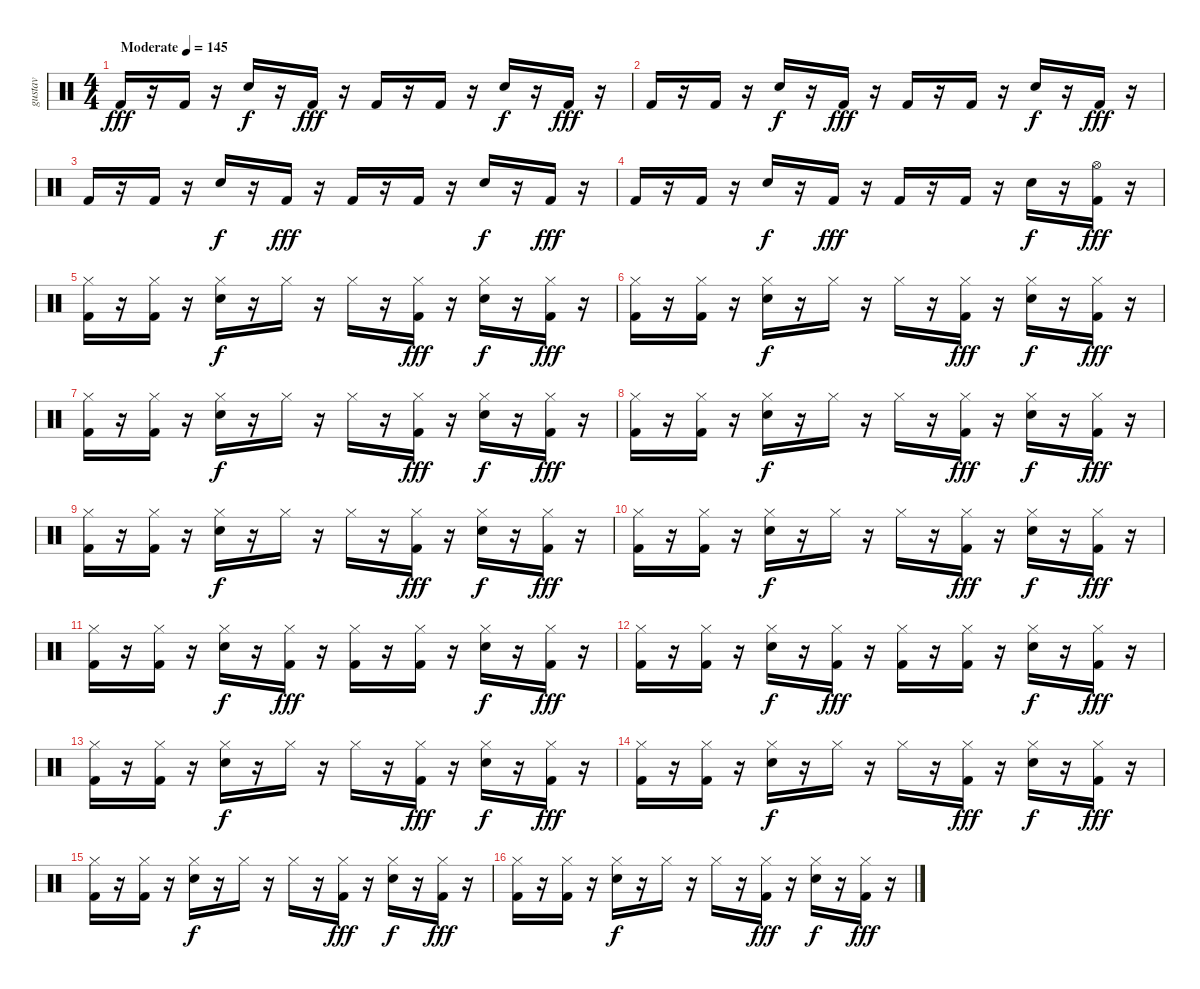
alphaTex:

\track ("gustav" "gustav") {instrument percussion}
\staff {score}
\articulation defaults
\ts (4 4)
\tempo (145 "Moderate")
\clef neutral
\ks c "Kick (hit) 2".16{dy fff}
r.16 "Kick (hit) 2".16 r.16 "Electric Snare (hit)".16{dy f} r.16 "Kick (hit) 2".16{dy fff} r.16 "Kick (hit) 2".16 r.16 "Kick (hit) 2".16 r.16 "Electric Snare (hit)".16{dy f} r.16 "Kick (hit) 2".16{dy fff} r.16 |
"Kick (hit) 2".16 r.16 "Kick (hit) 2".16 r.16 "Electric Snare (hit)".16{dy f} r.16 "Kick (hit) 2".16{dy fff} r.16 "Kick (hit) 2".16 r.16 "Kick (hit) 2".16 r.16 "Electric Snare (hit)".16{dy f} r.16 "Kick (hit) 2".16{dy fff} r.16 |
"Kick (hit) 2".16 r.16 "Kick (hit) 2".16 r.16 "Electric Snare (hit)".16{dy f} r.16 "Kick (hit) 2".16{dy fff} r.16 "Kick (hit) 2".16 r.16 "Kick (hit) 2".16 r.16 "Electric Snare (hit)".16{dy f} r.16 "Kick (hit) 2".16{dy fff} r.16 |
"Kick (hit) 2".16 r.16 "Kick (hit) 2".16 r.16 "Electric Snare (hit)".16{dy f} r.16 "Kick (hit) 2".16{dy fff} r.16 "Kick (hit) 2".16 r.16 "Kick (hit) 2".16 r.16 "Electric Snare (hit)".16{dy f} r.16 ("Hi-Hat (open)" "Kick (hit) 2").16{dy fff} r.16 |
("Hi-Hat (closed)" "Kick (hit) 2").16 r.16 ("Hi-Hat (closed)" "Kick (hit) 2").16 r.16 ("Hi-Hat (closed)" "Electric Snare (hit)").16{dy f} r.16 "Hi-Hat (closed)".16 r.16 "Hi-Hat (closed)".16 r.16 ("Hi-Hat (closed)" "Kick (hit) 2").16{dy fff} r.16 ("Hi-Hat (closed)" "Electric Snare (hit)").16{dy f} r.16 ("Hi-Hat (closed)" "Kick (hit) 2").16{dy fff} r.16 |
("Hi-Hat (closed)" "Kick (hit) 2").16 r.16 ("Hi-Hat (closed)" "Kick (hit) 2").16 r.16 ("Hi-Hat (closed)" "Electric Snare (hit)").16{dy f} r.16 "Hi-Hat (closed)".16 r.16 "Hi-Hat (closed)".16 r.16 ("Hi-Hat (closed)" "Kick (hit) 2").16{dy fff} r.16 ("Hi-Hat (closed)" "Electric Snare (hit)").16{dy f} r.16 ("Hi-Hat (closed)" "Kick (hit) 2").16{dy fff} r.16 |
("Hi-Hat (closed)" "Kick (hit) 2").16 r.16 ("Hi-Hat (closed)" "Kick (hit) 2").16 r.16 ("Hi-Hat (closed)" "Electric Snare (hit)").16{dy f} r.16 "Hi-Hat (closed)".16 r.16 "Hi-Hat (closed)".16 r.16 ("Hi-Hat (closed)" "Kick (hit) 2").16{dy fff} r.16 ("Hi-Hat (closed)" "Electric Snare (hit)").16{dy f} r.16 ("Hi-Hat (closed)" "Kick (hit) 2").16{dy fff} r.16 |
("Hi-Hat (closed)" "Kick (hit) 2").16 r.16 ("Hi-Hat (closed)" "Kick (hit) 2").16 r.16 ("Hi-Hat (closed)" "Electric Snare (hit)").16{dy f} r.16 "Hi-Hat (closed)".16 r.16 "Hi-Hat (closed)".16 r.16 ("Hi-Hat (closed)" "Kick (hit) 2").16{dy fff} r.16 ("Hi-Hat (closed)" "Electric Snare (hit)").16{dy f} r.16 ("Hi-Hat (closed)" "Kick (hit) 2").16{dy fff} r.16 |
("Hi-Hat (closed)" "Kick (hit) 2").16 r.16 ("Hi-Hat (closed)" "Kick (hit) 2").16 r.16 ("Hi-Hat (closed)" "Electric Snare (hit)").16{dy f} r.16 "Hi-Hat (closed)".16 r.16 "Hi-Hat (closed)".16 r.16 ("Hi-Hat (closed)" "Kick (hit) 2").16{dy fff} r.16 ("Hi-Hat (closed)" "Electric Snare (hit)").16{dy f} r.16 ("Hi-Hat (closed)" "Kick (hit) 2").16{dy fff} r.16 |
("Hi-Hat (closed)" "Kick (hit) 2").16 r.16 ("Hi-Hat (closed)" "Kick (hit) 2").16 r.16 ("Hi-Hat (closed)" "Electric Snare (hit)").16{dy f} r.16 "Hi-Hat (closed)".16 r.16 "Hi-Hat (closed)".16 r.16 ("Hi-Hat (closed)" "Kick (hit) 2").16{dy fff} r.16 ("Hi-Hat (closed)" "Electric Snare (hit)").16{dy f} r.16 ("Hi-Hat (closed)" "Kick (hit) 2").16{dy fff} r.16 |
("Hi-Hat (closed)" "Kick (hit) 2").16 r.16 ("Hi-Hat (closed)" "Kick (hit) 2").16 r.16 ("Hi-Hat (closed)" "Electric Snare (hit)").16{dy f} r.16 ("Hi-Hat (closed)" "Kick (hit) 2").16{dy fff} r.16 ("Hi-Hat (closed)" "Kick (hit) 2").16 r.16 ("Hi-Hat (closed)" "Kick (hit) 2").16 r.16 ("Hi-Hat (closed)" "Electric Snare (hit)").16{dy f} r.16 ("Hi-Hat (closed)" "Kick (hit) 2").16{dy fff} r.16 |
("Hi-Hat (closed)" "Kick (hit) 2").16 r.16 ("Hi-Hat (closed)" "Kick (hit) 2").16 r.16 ("Hi-Hat (closed)" "Electric Snare (hit)").16{dy f} r.16 ("Hi-Hat (closed)" "Kick (hit) 2").16{dy fff} r.16 ("Hi-Hat (closed)" "Kick (hit) 2").16 r.16 ("Hi-Hat (closed)" "Kick (hit) 2").16 r.16 ("Hi-Hat (closed)" "Electric Snare (hit)").16{dy f} r.16 ("Hi-Hat (closed)" "Kick (hit) 2").16{dy fff} r.16 |
("Hi-Hat (closed)" "Kick (hit) 2").16 r.16 ("Hi-Hat (closed)" "Kick (hit) 2").16 r.16 ("Hi-Hat (closed)" "Electric Snare (hit)").16{dy f} r.16 "Hi-Hat (closed)".16 r.16 "Hi-Hat (closed)".16 r.16 ("Hi-Hat (closed)" "Kick (hit) 2").16{dy fff} r.16 ("Hi-Hat (closed)" "Electric Snare (hit)").16{dy f} r.16 ("Hi-Hat (closed)" "Kick (hit) 2").16{dy fff} r.16 |
("Hi-Hat (closed)" "Kick (hit) 2").16 r.16 ("Hi-Hat (closed)" "Kick (hit) 2").16 r.16 ("Hi-Hat (closed)" "Electric Snare (hit)").16{dy f} r.16 "Hi-Hat (closed)".16 r.16 "Hi-Hat (closed)".16 r.16 ("Hi-Hat (closed)" "Kick (hit) 2").16{dy fff} r.16 ("Hi-Hat (closed)" "Electric Snare (hit)").16{dy f} r.16 ("Hi-Hat (closed)" "Kick (hit) 2").16{dy fff} r.16 |
("Hi-Hat (closed)" "Kick (hit) 2").16 r.16 ("Hi-Hat (closed)" "Kick (hit) 2").16 r.16 ("Hi-Hat (closed)" "Electric Snare (hit)").16{dy f} r.16 "Hi-Hat (closed)".16 r.16 "Hi-Hat (closed)".16 r.16 ("Hi-Hat (closed)" "Kick (hit) 2").16{dy fff} r.16 ("Hi-Hat (closed)" "Electric Snare (hit)").16{dy f} r.16 ("Hi-Hat (closed)" "Kick (hit) 2").16{dy fff} r.16 |
("Hi-Hat (closed)" "Kick (hit) 2").16 r.16 ("Hi-Hat (closed)" "Kick (hit) 2").16 r.16 ("Hi-Hat (closed)" "Electric Snare (hit)").16{dy f} r.16 "Hi-Hat (closed)".16 r.16 "Hi-Hat (closed)".16 r.16 ("Hi-Hat (closed)" "Kick (hit) 2").16{dy fff} r.16 ("Hi-Hat (closed)" "Electric Snare (hit)").16{dy f} r.16 ("Hi-Hat (closed)" "Kick (hit) 2").16{dy fff} r.16
